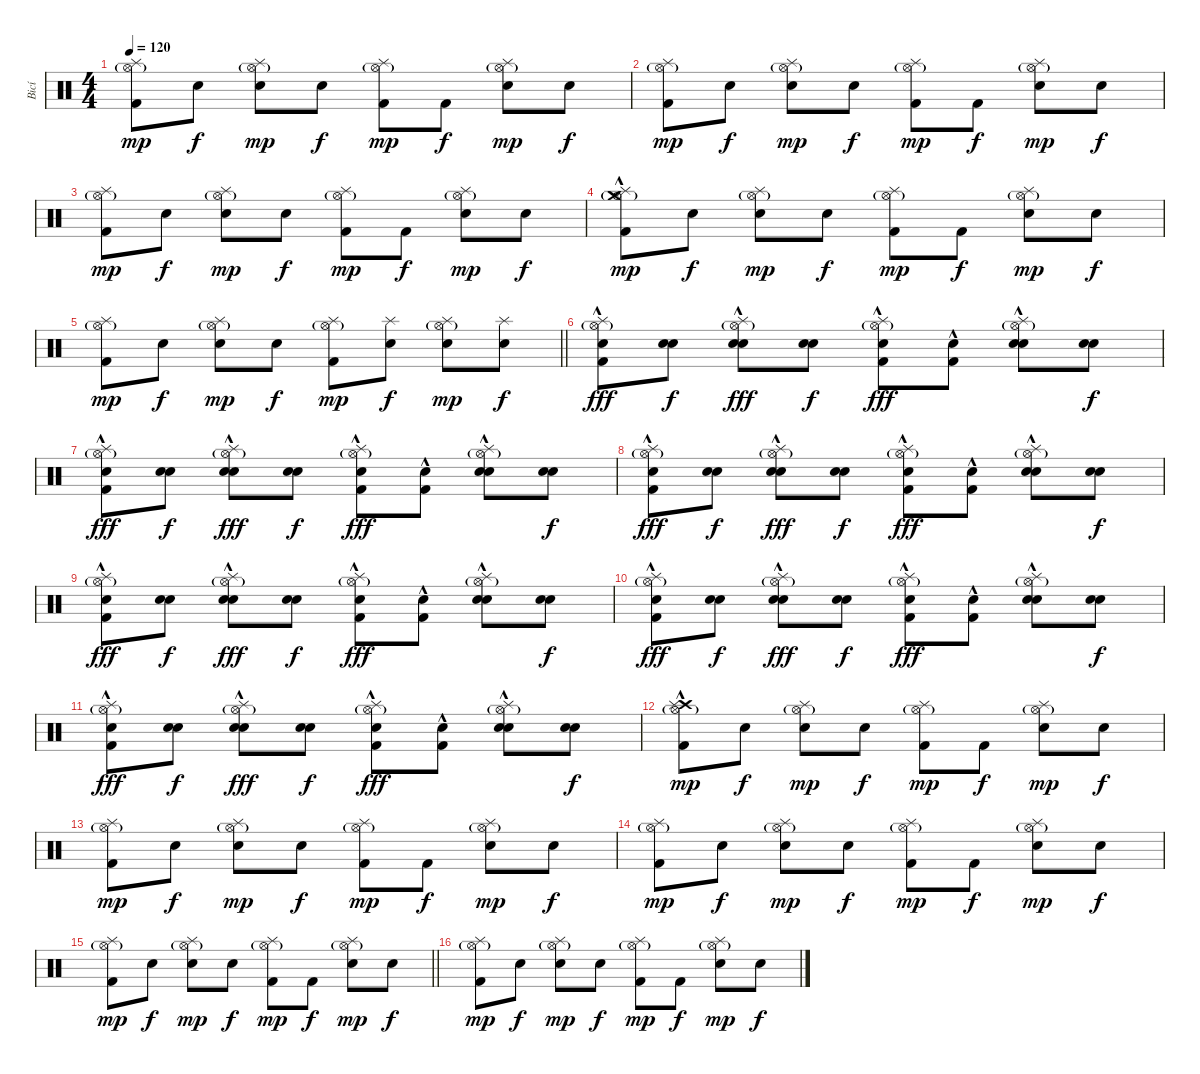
\track ("Bicí" "Bicí") {instrument percussion}
\staff {score}
\articulation defaults
\ts (4 4)
\tempo 120
\clef neutral
\ks c
("Splash (hit)" "Hi-Hat (open)"{g} "Kick (hit) 2").8{dy mp} "Snare (hit)".8{dy f} ("Splash (hit)" "Hi-Hat (open)"{g} "Electric Snare (hit)").8{dy mp} "Snare (hit)".8{dy f} ("Splash (hit)" "Hi-Hat (open)"{g} "Kick (hit) 2").8{dy mp} "Kick (hit) 2".8{dy f} ("Splash (hit)" "Hi-Hat (open)"{g} "Electric Snare (hit)").8{dy mp} "Snare (hit)".8{dy f} |
("Splash (hit)" "Hi-Hat (open)"{g} "Kick (hit) 2").8{dy mp} "Snare (hit)".8{dy f} ("Splash (hit)" "Hi-Hat (open)"{g} "Electric Snare (hit)").8{dy mp} "Snare (hit)".8{dy f} ("Splash (hit)" "Hi-Hat (open)"{g} "Kick (hit) 2").8{dy mp} "Kick (hit) 2".8{dy f} ("Splash (hit)" "Hi-Hat (open)"{g} "Electric Snare (hit)").8{dy mp} "Snare (hit)".8{dy f} |
("Splash (hit)" "Hi-Hat (open)"{g} "Kick (hit) 2").8{dy mp} "Snare (hit)".8{dy f} ("Splash (hit)" "Hi-Hat (open)"{g} "Electric Snare (hit)").8{dy mp} "Snare (hit)".8{dy f} ("Splash (hit)" "Hi-Hat (open)"{g} "Kick (hit) 2").8{dy mp} "Kick (hit) 2".8{dy f} ("Splash (hit)" "Hi-Hat (open)"{g} "Electric Snare (hit)").8{dy mp} "Snare (hit)".8{dy f} |
("Crash medium (hit)"{hac} "Splash (hit)" "Hi-Hat (open)"{g} "Kick (hit) 2").8{dy mp} "Snare (hit)".8{dy f} ("Splash (hit)" "Hi-Hat (open)"{g} "Electric Snare (hit)").8{dy mp} "Snare (hit)".8{dy f} ("Splash (hit)" "Hi-Hat (open)"{g} "Kick (hit) 2").8{dy mp} "Kick (hit) 2".8{dy f} ("Splash (hit)" "Hi-Hat (open)"{g} "Electric Snare (hit)").8{dy mp} "Snare (hit)".8{dy f} |
\barLineRight lightlight
("Splash (hit)" "Hi-Hat (open)"{g} "Kick (hit) 2").8{dy mp} "Snare (hit)".8{dy f} ("Splash (hit)" "Hi-Hat (open)"{g} "Electric Snare (hit)").8{dy mp} "Snare (hit)".8{dy f} ("Splash (hit)" "Hi-Hat (open)"{g} "Kick (hit) 2").8{dy mp} ("Splash (hit)" "Electric Snare (hit)").8{dy f} ("Splash (hit)" "Hi-Hat (open)"{g} "Electric Snare (hit)").8{dy mp} ("Splash (hit)" "Electric Snare (hit)").8{dy f} |
\section ("" "")
("Hand Clap (hit)" "Splash (hit)" "Hi-Hat (open)"{g} "Kick (hit) 2"{hac}).8{dy fff} ("Hand Clap (hit)" "Snare (hit)").8{dy f} ("Hand Clap (hit)" "Splash (hit)" "Hi-Hat (open)"{g} "Electric Snare (hit)"{hac}).8{dy fff} ("Hand Clap (hit)" "Snare (hit)").8{dy f} ("Hand Clap (hit)" "Splash (hit)" "Hi-Hat (open)"{g} "Kick (hit) 2"{hac}).8{dy fff} ("Hand Clap (hit)" "Kick (hit) 2"{hac}).8 ("Hand Clap (hit)" "Splash (hit)" "Hi-Hat (open)"{g} "Electric Snare (hit)"{hac}).8 ("Hand Clap (hit)" "Snare (hit)").8{dy f} |
("Hand Clap (hit)" "Splash (hit)" "Hi-Hat (open)"{g} "Kick (hit) 2"{hac}).8{dy fff} ("Hand Clap (hit)" "Snare (hit)").8{dy f} ("Hand Clap (hit)" "Splash (hit)" "Hi-Hat (open)"{g} "Electric Snare (hit)"{hac}).8{dy fff} ("Hand Clap (hit)" "Snare (hit)").8{dy f} ("Hand Clap (hit)" "Splash (hit)" "Hi-Hat (open)"{g} "Kick (hit) 2"{hac}).8{dy fff} ("Hand Clap (hit)" "Kick (hit) 2"{hac}).8 ("Hand Clap (hit)" "Splash (hit)" "Hi-Hat (open)"{g} "Electric Snare (hit)"{hac}).8 ("Hand Clap (hit)" "Snare (hit)").8{dy f} |
("Hand Clap (hit)" "Splash (hit)" "Hi-Hat (open)"{g} "Kick (hit) 2"{hac}).8{dy fff} ("Hand Clap (hit)" "Snare (hit)").8{dy f} ("Hand Clap (hit)" "Splash (hit)" "Hi-Hat (open)"{g} "Electric Snare (hit)"{hac}).8{dy fff} ("Hand Clap (hit)" "Snare (hit)").8{dy f} ("Hand Clap (hit)" "Splash (hit)" "Hi-Hat (open)"{g} "Kick (hit) 2"{hac}).8{dy fff} ("Hand Clap (hit)" "Kick (hit) 2"{hac}).8 ("Hand Clap (hit)" "Splash (hit)" "Hi-Hat (open)"{g} "Electric Snare (hit)"{hac}).8 ("Hand Clap (hit)" "Snare (hit)").8{dy f} |
("Hand Clap (hit)" "Splash (hit)" "Hi-Hat (open)"{g} "Kick (hit) 2"{hac}).8{dy fff} ("Hand Clap (hit)" "Snare (hit)").8{dy f} ("Hand Clap (hit)" "Splash (hit)" "Hi-Hat (open)"{g} "Electric Snare (hit)"{hac}).8{dy fff} ("Hand Clap (hit)" "Snare (hit)").8{dy f} ("Hand Clap (hit)" "Splash (hit)" "Hi-Hat (open)"{g} "Kick (hit) 2"{hac}).8{dy fff} ("Hand Clap (hit)" "Kick (hit) 2"{hac}).8 ("Hand Clap (hit)" "Splash (hit)" "Hi-Hat (open)"{g} "Electric Snare (hit)"{hac}).8 ("Hand Clap (hit)" "Snare (hit)").8{dy f} |
("Hand Clap (hit)" "Splash (hit)" "Hi-Hat (open)"{g} "Kick (hit) 2"{hac}).8{dy fff} ("Hand Clap (hit)" "Snare (hit)").8{dy f} ("Hand Clap (hit)" "Splash (hit)" "Hi-Hat (open)"{g} "Electric Snare (hit)"{hac}).8{dy fff} ("Hand Clap (hit)" "Snare (hit)").8{dy f} ("Hand Clap (hit)" "Splash (hit)" "Hi-Hat (open)"{g} "Kick (hit) 2"{hac}).8{dy fff} ("Hand Clap (hit)" "Kick (hit) 2"{hac}).8 ("Hand Clap (hit)" "Splash (hit)" "Hi-Hat (open)"{g} "Electric Snare (hit)"{hac}).8 ("Hand Clap (hit)" "Snare (hit)").8{dy f} |
("Hand Clap (hit)" "Splash (hit)" "Hi-Hat (open)"{g} "Kick (hit) 2"{hac}).8{dy fff} ("Hand Clap (hit)" "Snare (hit)").8{dy f} ("Hand Clap (hit)" "Splash (hit)" "Hi-Hat (open)"{g} "Electric Snare (hit)"{hac}).8{dy fff} ("Hand Clap (hit)" "Snare (hit)").8{dy f} ("Hand Clap (hit)" "Splash (hit)" "Hi-Hat (open)"{g} "Kick (hit) 2"{hac}).8{dy fff} ("Hand Clap (hit)" "Kick (hit) 2"{hac}).8 ("Hand Clap (hit)" "Splash (hit)" "Hi-Hat (open)"{g} "Electric Snare (hit)"{hac}).8 ("Hand Clap (hit)" "Snare (hit)").8{dy f} |
("Crash high (hit)"{hac} "Splash (hit)" "Hi-Hat (open)"{g} "Kick (hit) 2").8{dy mp} "Snare (hit)".8{dy f} ("Splash (hit)" "Hi-Hat (open)"{g} "Electric Snare (hit)").8{dy mp} "Snare (hit)".8{dy f} ("Splash (hit)" "Hi-Hat (open)"{g} "Kick (hit) 2").8{dy mp} "Kick (hit) 2".8{dy f} ("Splash (hit)" "Hi-Hat (open)"{g} "Electric Snare (hit)").8{dy mp} "Snare (hit)".8{dy f} |
("Splash (hit)" "Hi-Hat (open)"{g} "Kick (hit) 2").8{dy mp} "Snare (hit)".8{dy f} ("Splash (hit)" "Hi-Hat (open)"{g} "Electric Snare (hit)").8{dy mp} "Snare (hit)".8{dy f} ("Splash (hit)" "Hi-Hat (open)"{g} "Kick (hit) 2").8{dy mp} "Kick (hit) 2".8{dy f} ("Splash (hit)" "Hi-Hat (open)"{g} "Electric Snare (hit)").8{dy mp} "Snare (hit)".8{dy f} |
("Splash (hit)" "Hi-Hat (open)"{g} "Kick (hit) 2").8{dy mp} "Snare (hit)".8{dy f} ("Splash (hit)" "Hi-Hat (open)"{g} "Electric Snare (hit)").8{dy mp} "Snare (hit)".8{dy f} ("Splash (hit)" "Hi-Hat (open)"{g} "Kick (hit) 2").8{dy mp} "Kick (hit) 2".8{dy f} ("Splash (hit)" "Hi-Hat (open)"{g} "Electric Snare (hit)").8{dy mp} "Snare (hit)".8{dy f} |
\barLineRight lightlight
("Splash (hit)" "Hi-Hat (open)"{g} "Kick (hit) 2").8{dy mp} "Snare (hit)".8{dy f} ("Splash (hit)" "Hi-Hat (open)"{g} "Electric Snare (hit)").8{dy mp} "Snare (hit)".8{dy f} ("Splash (hit)" "Hi-Hat (open)"{g} "Kick (hit) 2").8{dy mp} "Kick (hit) 2".8{dy f} ("Splash (hit)" "Hi-Hat (open)"{g} "Electric Snare (hit)").8{dy mp} "Snare (hit)".8{dy f} |
("Splash (hit)" "Hi-Hat (open)"{g} "Kick (hit) 2").8{dy mp} "Snare (hit)".8{dy f} ("Splash (hit)" "Hi-Hat (open)"{g} "Electric Snare (hit)").8{dy mp} "Snare (hit)".8{dy f} ("Splash (hit)" "Hi-Hat (open)"{g} "Kick (hit) 2").8{dy mp} "Kick (hit) 2".8{dy f} ("Splash (hit)" "Hi-Hat (open)"{g} "Electric Snare (hit)").8{dy mp} "Snare (hit)".8{dy f}
